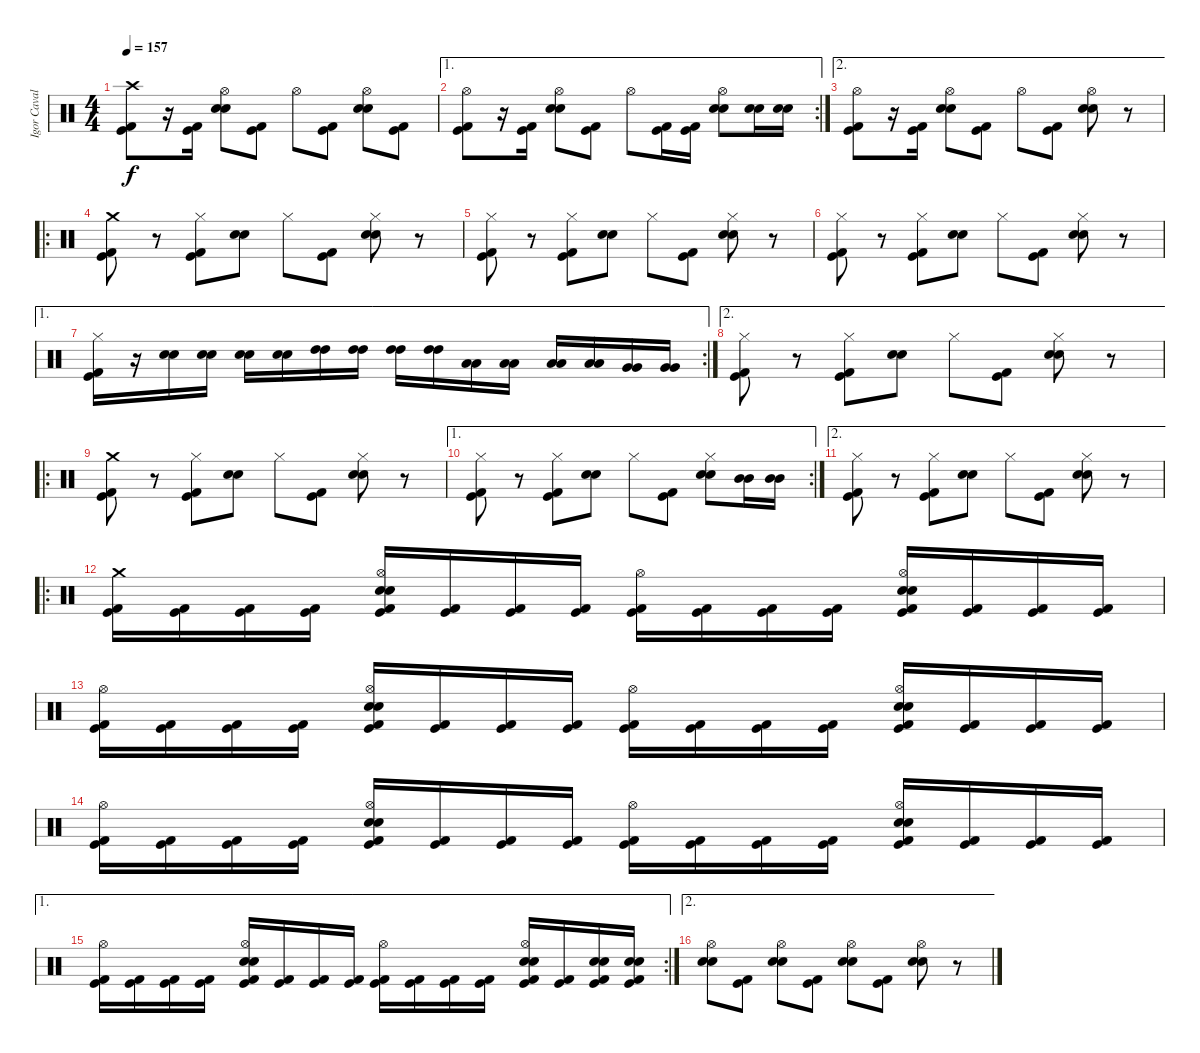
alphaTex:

\track ("Igor Cavalera" "Igor Caval") {instrument percussion}
\staff {score}
\articulation defaults
\ts (4 4)
\tempo 157
\clef neutral
\ks c
("Crash high (hit)" "Kick (hit) 2" "Kick (hit)").8{dy f} r.16 ("Kick (hit) 2" "Kick (hit)").16 ("Hi-Hat (open)" "Snare (hit) 2" "Electric Snare (hit)").8 ("Kick (hit) 2" "Kick (hit)").8 "Hi-Hat (open)".8 ("Kick (hit) 2" "Kick (hit)").8 ("Hi-Hat (open)" "Snare (hit) 2" "Electric Snare (hit)").8 ("Kick (hit) 2" "Kick (hit)").8 |
\ae 1
\rc 2
("Hi-Hat (open)" "Kick (hit) 2" "Kick (hit)").8 r.16 ("Kick (hit) 2" "Kick (hit)").16 ("Hi-Hat (open)" "Snare (hit) 2" "Electric Snare (hit)").8 ("Kick (hit) 2" "Kick (hit)").8 "Hi-Hat (open)".8 ("Kick (hit) 2" "Kick (hit)").16 ("Kick (hit) 2" "Kick (hit)").16 ("Hi-Hat (open)" "Snare (hit) 2" "Electric Snare (hit)").8 ("Snare (hit) 2" "Electric Snare (hit)").16 ("Snare (hit) 2" "Electric Snare (hit)").16 |
\ae 2
("Hi-Hat (open)" "Kick (hit) 2" "Kick (hit)").8 r.16 ("Kick (hit) 2" "Kick (hit)").16 ("Hi-Hat (open)" "Snare (hit) 2" "Electric Snare (hit)").8 ("Kick (hit) 2" "Kick (hit)").8 "Hi-Hat (open)".8 ("Kick (hit) 2" "Kick (hit)").8 ("Hi-Hat (open)" "Snare (hit) 2" "Electric Snare (hit)").8 r.8 |
\ro
("Crash medium (hit)" "Kick (hit) 2" "Kick (hit)").8 r.8 ("Hi-Hat (closed)" "Kick (hit) 2" "Kick (hit)").8 ("Electric Snare (hit)" "Snare (hit) 2").8 "Hi-Hat (closed)".8 ("Kick (hit) 2" "Kick (hit)").8 ("Hi-Hat (closed)" "Electric Snare (hit)" "Snare (hit) 2").8 r.8 |
("Hi-Hat (closed)" "Kick (hit) 2" "Kick (hit)").8 r.8 ("Hi-Hat (closed)" "Kick (hit) 2" "Kick (hit)").8 ("Electric Snare (hit)" "Snare (hit) 2").8 "Hi-Hat (closed)".8 ("Kick (hit) 2" "Kick (hit)").8 ("Hi-Hat (closed)" "Electric Snare (hit)" "Snare (hit) 2").8 r.8 |
("Hi-Hat (closed)" "Kick (hit) 2" "Kick (hit)").8 r.8 ("Hi-Hat (closed)" "Kick (hit) 2" "Kick (hit)").8 ("Electric Snare (hit)" "Snare (hit) 2").8 "Hi-Hat (closed)".8 ("Kick (hit) 2" "Kick (hit)").8 ("Hi-Hat (closed)" "Electric Snare (hit)" "Snare (hit) 2").8 r.8 |
\ae 1
\rc 2
("Hi-Hat (closed)" "Kick (hit) 2" "Kick (hit)").16 r.16 ("Snare (hit) 2" "Electric Snare (hit)").16 ("Snare (hit) 2" "Electric Snare (hit)").16 ("Snare (hit) 2" "Electric Snare (hit)").16 ("Snare (hit) 2" "Electric Snare (hit)").16 ("High Tom (hit)" "High Tom (hit)").16 ("High Tom (hit)" "High Tom (hit)").16 ("High Tom (hit)" "High Tom (hit)").16 ("High Tom (hit)" "High Tom (hit)").16 ("Low Tom (hit)" "Low Tom (hit)").16 ("Low Tom (hit)" "Low Tom (hit)").16 ("Low Tom (hit)" "Low Tom (hit)").16 ("Low Tom (hit)" "Low Tom (hit)").16 ("Very Low Tom (hit)" "Very Low Tom (hit)").16 ("Very Low Tom (hit)" "Very Low Tom (hit)").16 |
\ae 2
("Hi-Hat (closed)" "Kick (hit) 2" "Kick (hit)").8 r.8 ("Hi-Hat (closed)" "Kick (hit) 2" "Kick (hit)").8 ("Electric Snare (hit)" "Snare (hit) 2").8 "Hi-Hat (closed)".8 ("Kick (hit) 2" "Kick (hit)").8 ("Hi-Hat (closed)" "Electric Snare (hit)" "Snare (hit) 2").8 r.8 |
\ro
("Crash medium (hit)" "Kick (hit) 2" "Kick (hit)").8 r.8 ("Hi-Hat (closed)" "Kick (hit) 2" "Kick (hit)").8 ("Electric Snare (hit)" "Snare (hit) 2").8 "Hi-Hat (closed)".8 ("Kick (hit) 2" "Kick (hit)").8 ("Hi-Hat (closed)" "Electric Snare (hit)" "Snare (hit) 2").8 r.8 |
\ae 1
\rc 2
("Hi-Hat (closed)" "Kick (hit) 2" "Kick (hit)").8 r.8 ("Hi-Hat (closed)" "Kick (hit) 2" "Kick (hit)").8 ("Electric Snare (hit)" "Snare (hit) 2").8 "Hi-Hat (closed)".8 ("Kick (hit) 2" "Kick (hit)").8 ("Hi-Hat (closed)" "Electric Snare (hit)" "Snare (hit) 2").8 ("Mid Tom (hit)" "Mid Tom (hit)").16 ("Mid Tom (hit)" "Mid Tom (hit)").16 |
\ae 2
("Hi-Hat (closed)" "Kick (hit) 2" "Kick (hit)").8 r.8 ("Hi-Hat (closed)" "Kick (hit) 2" "Kick (hit)").8 ("Electric Snare (hit)" "Snare (hit) 2").8 "Hi-Hat (closed)".8 ("Kick (hit) 2" "Kick (hit)").8 ("Hi-Hat (closed)" "Electric Snare (hit)" "Snare (hit) 2").8 r.8 |
\ro
("Crash medium (hit)" "Kick (hit) 2" "Kick (hit)").16 ("Kick (hit) 2" "Kick (hit)").16 ("Kick (hit) 2" "Kick (hit)").16 ("Kick (hit) 2" "Kick (hit)").16 ("Hi-Hat (open)" "Snare (hit) 2" "Electric Snare (hit)" "Kick (hit) 2" "Kick (hit)").16 ("Kick (hit) 2" "Kick (hit)").16 ("Kick (hit) 2" "Kick (hit)").16 ("Kick (hit) 2" "Kick (hit)").16 ("Hi-Hat (open)" "Kick (hit) 2" "Kick (hit)").16 ("Kick (hit) 2" "Kick (hit)").16 ("Kick (hit) 2" "Kick (hit)").16 ("Kick (hit) 2" "Kick (hit)").16 ("Hi-Hat (open)" "Snare (hit) 2" "Electric Snare (hit)" "Kick (hit) 2" "Kick (hit)").16 ("Kick (hit) 2" "Kick (hit)").16 ("Kick (hit) 2" "Kick (hit)").16 ("Kick (hit) 2" "Kick (hit)").16 |
("Hi-Hat (open)" "Kick (hit) 2" "Kick (hit)").16 ("Kick (hit) 2" "Kick (hit)").16 ("Kick (hit) 2" "Kick (hit)").16 ("Kick (hit) 2" "Kick (hit)").16 ("Hi-Hat (open)" "Snare (hit) 2" "Electric Snare (hit)" "Kick (hit) 2" "Kick (hit)").16 ("Kick (hit) 2" "Kick (hit)").16 ("Kick (hit) 2" "Kick (hit)").16 ("Kick (hit) 2" "Kick (hit)").16 ("Hi-Hat (open)" "Kick (hit) 2" "Kick (hit)").16 ("Kick (hit) 2" "Kick (hit)").16 ("Kick (hit) 2" "Kick (hit)").16 ("Kick (hit) 2" "Kick (hit)").16 ("Hi-Hat (open)" "Snare (hit) 2" "Electric Snare (hit)" "Kick (hit) 2" "Kick (hit)").16 ("Kick (hit) 2" "Kick (hit)").16 ("Kick (hit) 2" "Kick (hit)").16 ("Kick (hit) 2" "Kick (hit)").16 |
("Hi-Hat (open)" "Kick (hit) 2" "Kick (hit)").16 ("Kick (hit) 2" "Kick (hit)").16 ("Kick (hit) 2" "Kick (hit)").16 ("Kick (hit) 2" "Kick (hit)").16 ("Hi-Hat (open)" "Snare (hit) 2" "Electric Snare (hit)" "Kick (hit) 2" "Kick (hit)").16 ("Kick (hit) 2" "Kick (hit)").16 ("Kick (hit) 2" "Kick (hit)").16 ("Kick (hit) 2" "Kick (hit)").16 ("Hi-Hat (open)" "Kick (hit) 2" "Kick (hit)").16 ("Kick (hit) 2" "Kick (hit)").16 ("Kick (hit) 2" "Kick (hit)").16 ("Kick (hit) 2" "Kick (hit)").16 ("Hi-Hat (open)" "Snare (hit) 2" "Electric Snare (hit)" "Kick (hit) 2" "Kick (hit)").16 ("Kick (hit) 2" "Kick (hit)").16 ("Kick (hit) 2" "Kick (hit)").16 ("Kick (hit) 2" "Kick (hit)").16 |
\ae 1
\rc 2
("Hi-Hat (open)" "Kick (hit) 2" "Kick (hit)").16 ("Kick (hit) 2" "Kick (hit)").16 ("Kick (hit) 2" "Kick (hit)").16 ("Kick (hit) 2" "Kick (hit)").16 ("Hi-Hat (open)" "Snare (hit) 2" "Electric Snare (hit)" "Kick (hit) 2" "Kick (hit)").16 ("Kick (hit) 2" "Kick (hit)").16 ("Kick (hit) 2" "Kick (hit)").16 ("Kick (hit) 2" "Kick (hit)").16 ("Hi-Hat (open)" "Kick (hit) 2" "Kick (hit)").16 ("Kick (hit) 2" "Kick (hit)").16 ("Kick (hit) 2" "Kick (hit)").16 ("Kick (hit) 2" "Kick (hit)").16 ("Hi-Hat (open)" "Snare (hit) 2" "Electric Snare (hit)" "Kick (hit) 2" "Kick (hit)").16 ("Kick (hit) 2" "Kick (hit)").16 ("Snare (hit) 2" "Electric Snare (hit)" "Kick (hit) 2" "Kick (hit)").16 ("Snare (hit) 2" "Electric Snare (hit)" "Kick (hit) 2" "Kick (hit)").16 |
\ae 2
("Hi-Hat (open)" "Snare (hit) 2" "Electric Snare (hit)").8 ("Kick (hit) 2" "Kick (hit)").8 ("Hi-Hat (open)" "Snare (hit) 2" "Electric Snare (hit)").8 ("Kick (hit) 2" "Kick (hit)").8 ("Hi-Hat (open)" "Snare (hit) 2" "Electric Snare (hit)").8 ("Kick (hit) 2" "Kick (hit)").8 ("Hi-Hat (open)" "Snare (hit) 2" "Electric Snare (hit)").8 r.8
